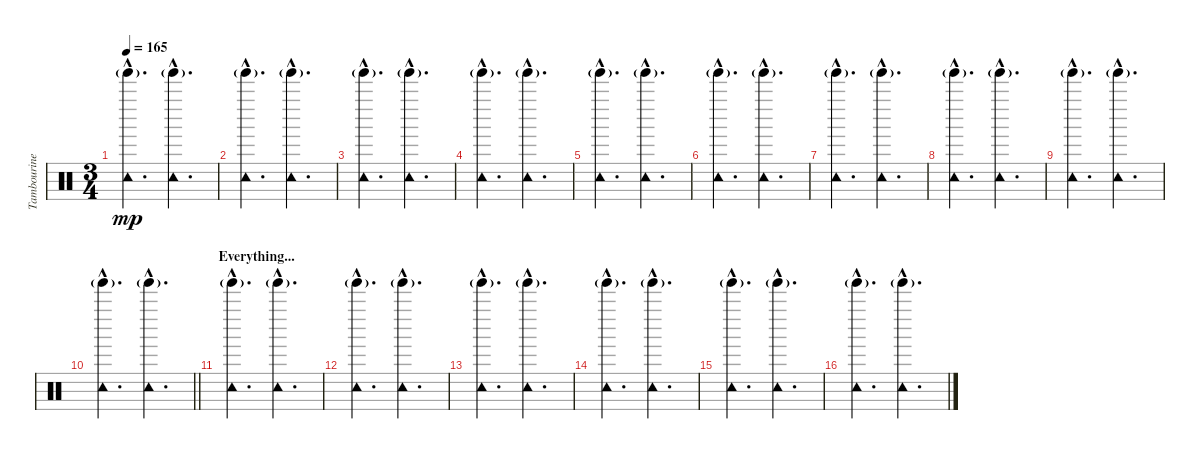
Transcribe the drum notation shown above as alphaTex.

\track ("Tambourine" "Tambourine") {instrument percussion}
\staff {score}
\articulation defaults
\ts (3 4)
\tempo 165
\clef neutral
\ks c
("Tambourine (hit)"{hac} "Tinkle Bell (hit)"{g}).4{d dy mp} ("Tambourine (hit)"{hac} "Tinkle Bell (hit)"{g}).4{d} |
("Tambourine (hit)"{hac} "Tinkle Bell (hit)"{g}).4{d} ("Tambourine (hit)"{hac} "Tinkle Bell (hit)"{g}).4{d} |
("Tambourine (hit)"{hac} "Tinkle Bell (hit)"{g}).4{d} ("Tambourine (hit)"{hac} "Tinkle Bell (hit)"{g}).4{d} |
("Tambourine (hit)"{hac} "Tinkle Bell (hit)"{g}).4{d} ("Tambourine (hit)"{hac} "Tinkle Bell (hit)"{g}).4{d} |
("Tambourine (hit)"{hac} "Tinkle Bell (hit)"{g}).4{d} ("Tambourine (hit)"{hac} "Tinkle Bell (hit)"{g}).4{d} |
("Tambourine (hit)"{hac} "Tinkle Bell (hit)"{g}).4{d} ("Tambourine (hit)"{hac} "Tinkle Bell (hit)"{g}).4{d} |
("Tambourine (hit)"{hac} "Tinkle Bell (hit)"{g}).4{d} ("Tambourine (hit)"{hac} "Tinkle Bell (hit)"{g}).4{d} |
("Tambourine (hit)"{hac} "Tinkle Bell (hit)"{g}).4{d} ("Tambourine (hit)"{hac} "Tinkle Bell (hit)"{g}).4{d} |
("Tambourine (hit)"{hac} "Tinkle Bell (hit)"{g}).4{d} ("Tambourine (hit)"{hac} "Tinkle Bell (hit)"{g}).4{d} |
\barLineRight lightlight
("Tambourine (hit)"{hac} "Tinkle Bell (hit)"{g}).4{d} ("Tambourine (hit)"{hac} "Tinkle Bell (hit)"{g}).4{d} |
\section ("" "Everything...")
("Tambourine (hit)"{hac} "Tinkle Bell (hit)"{g}).4{d} ("Tambourine (hit)"{hac} "Tinkle Bell (hit)"{g}).4{d} |
("Tambourine (hit)"{hac} "Tinkle Bell (hit)"{g}).4{d} ("Tambourine (hit)"{hac} "Tinkle Bell (hit)"{g}).4{d} |
("Tambourine (hit)"{hac} "Tinkle Bell (hit)"{g}).4{d} ("Tambourine (hit)"{hac} "Tinkle Bell (hit)"{g}).4{d} |
("Tambourine (hit)"{hac} "Tinkle Bell (hit)"{g}).4{d} ("Tambourine (hit)"{hac} "Tinkle Bell (hit)"{g}).4{d} |
("Tambourine (hit)"{hac} "Tinkle Bell (hit)"{g}).4{d} ("Tambourine (hit)"{hac} "Tinkle Bell (hit)"{g}).4{d} |
("Tambourine (hit)"{hac} "Tinkle Bell (hit)"{g}).4{d} ("Tambourine (hit)"{hac} "Tinkle Bell (hit)"{g}).4{d}
